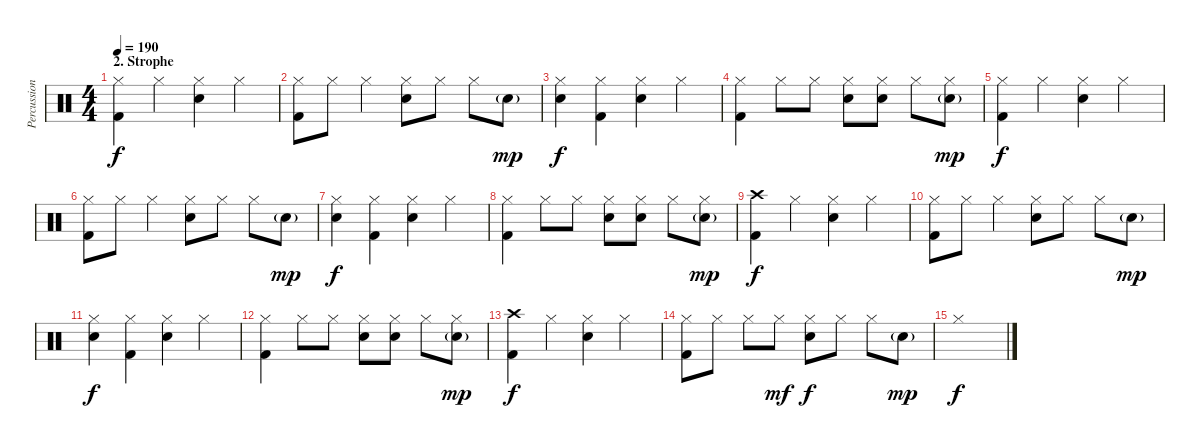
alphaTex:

\track ("Percussion" "Percussion") {instrument percussion}
\staff {score}
\articulation defaults
\ts (4 4)
\section ("" "2. Strophe")
\tempo 190
\clef neutral
\ks c
("Hi-Hat (closed)" "Kick (hit) 2").4{dy f} "Hi-Hat (closed)".4 ("Hi-Hat (closed)" "Electric Snare (hit)").4 "Hi-Hat (closed)".4 |
("Hi-Hat (closed)" "Kick (hit) 2").8 "Hi-Hat (closed)".8 "Hi-Hat (closed)".4 ("Hi-Hat (closed)" "Electric Snare (hit)").8 "Hi-Hat (closed)".8 "Hi-Hat (closed)".8 "Electric Snare (hit)"{g}.8{dy mp} |
("Hi-Hat (closed)" "Electric Snare (hit)").4{dy f} ("Hi-Hat (closed)" "Kick (hit) 2").4 ("Hi-Hat (closed)" "Electric Snare (hit)").4 "Hi-Hat (closed)".4 |
("Hi-Hat (closed)" "Kick (hit) 2").4 "Hi-Hat (closed)".8 "Hi-Hat (closed)".8 ("Hi-Hat (closed)" "Electric Snare (hit)").8 ("Hi-Hat (closed)" "Electric Snare (hit)").8 "Hi-Hat (closed)".8 ("Hi-Hat (closed)" "Electric Snare (hit)"{g}).8{dy mp} |
("Hi-Hat (closed)" "Kick (hit) 2").4{dy f} "Hi-Hat (closed)".4 ("Hi-Hat (closed)" "Electric Snare (hit)").4 "Hi-Hat (closed)".4 |
("Hi-Hat (closed)" "Kick (hit) 2").8 "Hi-Hat (closed)".8 "Hi-Hat (closed)".4 ("Hi-Hat (closed)" "Electric Snare (hit)").8 "Hi-Hat (closed)".8 "Hi-Hat (closed)".8 "Electric Snare (hit)"{g}.8{dy mp} |
("Hi-Hat (closed)" "Electric Snare (hit)").4{dy f} ("Hi-Hat (closed)" "Kick (hit) 2").4 ("Hi-Hat (closed)" "Electric Snare (hit)").4 "Hi-Hat (closed)".4 |
("Hi-Hat (closed)" "Kick (hit) 2").4 "Hi-Hat (closed)".8 "Hi-Hat (closed)".8 ("Hi-Hat (closed)" "Electric Snare (hit)").8 ("Hi-Hat (closed)" "Electric Snare (hit)").8 "Hi-Hat (closed)".8 ("Hi-Hat (closed)" "Electric Snare (hit)"{g}).8{dy mp} |
("Crash high (hit)" "Kick (hit) 2").4{dy f} "Hi-Hat (closed)".4 ("Hi-Hat (closed)" "Electric Snare (hit)").4 "Hi-Hat (closed)".4 |
("Hi-Hat (closed)" "Kick (hit) 2").8 "Hi-Hat (closed)".8 "Hi-Hat (closed)".4 ("Hi-Hat (closed)" "Electric Snare (hit)").8 "Hi-Hat (closed)".8 "Hi-Hat (closed)".8 "Electric Snare (hit)"{g}.8{dy mp} |
("Hi-Hat (closed)" "Electric Snare (hit)").4{dy f} ("Hi-Hat (closed)" "Kick (hit) 2").4 ("Hi-Hat (closed)" "Electric Snare (hit)").4 "Hi-Hat (closed)".4 |
("Hi-Hat (closed)" "Kick (hit) 2").4 "Hi-Hat (closed)".8 "Hi-Hat (closed)".8 ("Hi-Hat (closed)" "Electric Snare (hit)").8 ("Hi-Hat (closed)" "Electric Snare (hit)").8 "Hi-Hat (closed)".8 ("Hi-Hat (closed)" "Electric Snare (hit)"{g}).8{dy mp} |
("Crash high (hit)" "Kick (hit) 2").4{dy f} "Hi-Hat (closed)".4 ("Hi-Hat (closed)" "Electric Snare (hit)").4 "Hi-Hat (closed)".4 |
("Hi-Hat (closed)" "Kick (hit) 2").8 "Hi-Hat (closed)".8 "Hi-Hat (closed)".8 "Hi-Hat (closed)".8{dy mf} ("Hi-Hat (closed)" "Electric Snare (hit)").8{dy f} "Hi-Hat (closed)".8 "Hi-Hat (closed)".8 "Electric Snare (hit)"{g}.8{dy mp} |
"Hi-Hat (closed)".1{dy f}
